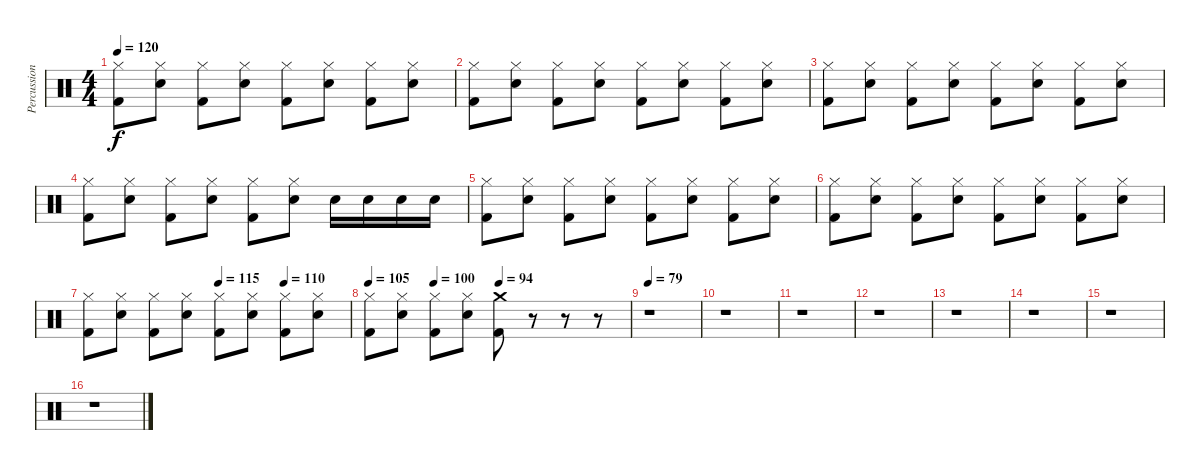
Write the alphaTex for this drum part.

\track ("Percussion" "Percussion") {instrument percussion}
\staff {score}
\articulation defaults
\ts (4 4)
\tempo 120
\clef neutral
\ks c
("Hi-Hat (closed)" "Kick (hit) 2").8{dy f} ("Hi-Hat (closed)" "Electric Snare (hit)").8 ("Hi-Hat (closed)" "Kick (hit) 2").8 ("Hi-Hat (closed)" "Electric Snare (hit)").8 ("Hi-Hat (closed)" "Kick (hit) 2").8 ("Hi-Hat (closed)" "Electric Snare (hit)").8 ("Hi-Hat (closed)" "Kick (hit) 2").8 ("Hi-Hat (closed)" "Electric Snare (hit)").8 |
("Hi-Hat (closed)" "Kick (hit) 2").8 ("Hi-Hat (closed)" "Electric Snare (hit)").8 ("Hi-Hat (closed)" "Kick (hit) 2").8 ("Hi-Hat (closed)" "Electric Snare (hit)").8 ("Hi-Hat (closed)" "Kick (hit) 2").8 ("Hi-Hat (closed)" "Electric Snare (hit)").8 ("Hi-Hat (closed)" "Kick (hit) 2").8 ("Hi-Hat (closed)" "Electric Snare (hit)").8 |
("Hi-Hat (closed)" "Kick (hit) 2").8 ("Hi-Hat (closed)" "Electric Snare (hit)").8 ("Hi-Hat (closed)" "Kick (hit) 2").8 ("Hi-Hat (closed)" "Electric Snare (hit)").8 ("Hi-Hat (closed)" "Kick (hit) 2").8 ("Hi-Hat (closed)" "Electric Snare (hit)").8 ("Hi-Hat (closed)" "Kick (hit) 2").8 ("Hi-Hat (closed)" "Electric Snare (hit)").8 |
("Hi-Hat (closed)" "Kick (hit) 2").8 ("Hi-Hat (closed)" "Electric Snare (hit)").8 ("Hi-Hat (closed)" "Kick (hit) 2").8 ("Hi-Hat (closed)" "Electric Snare (hit)").8 ("Hi-Hat (closed)" "Kick (hit) 2").8 ("Hi-Hat (closed)" "Electric Snare (hit)").8 "Electric Snare (hit)".16 "Electric Snare (hit)".16 "Electric Snare (hit)".16 "Electric Snare (hit)".16 |
("Hi-Hat (closed)" "Kick (hit) 2").8 ("Hi-Hat (closed)" "Electric Snare (hit)").8 ("Hi-Hat (closed)" "Kick (hit) 2").8 ("Hi-Hat (closed)" "Electric Snare (hit)").8 ("Hi-Hat (closed)" "Kick (hit) 2").8 ("Hi-Hat (closed)" "Electric Snare (hit)").8 ("Hi-Hat (closed)" "Kick (hit) 2").8 ("Hi-Hat (closed)" "Electric Snare (hit)").8 |
("Hi-Hat (closed)" "Kick (hit) 2").8 ("Hi-Hat (closed)" "Electric Snare (hit)").8 ("Hi-Hat (closed)" "Kick (hit) 2").8 ("Hi-Hat (closed)" "Electric Snare (hit)").8 ("Hi-Hat (closed)" "Kick (hit) 2").8 ("Hi-Hat (closed)" "Electric Snare (hit)").8 ("Hi-Hat (closed)" "Kick (hit) 2").8 ("Hi-Hat (closed)" "Electric Snare (hit)").8 |
\tempo (115 0.5)
\tempo (110 0.75)
("Hi-Hat (closed)" "Kick (hit) 2").8 ("Hi-Hat (closed)" "Electric Snare (hit)").8 ("Hi-Hat (closed)" "Kick (hit) 2").8 ("Hi-Hat (closed)" "Electric Snare (hit)").8 ("Hi-Hat (closed)" "Kick (hit) 2").8 ("Hi-Hat (closed)" "Electric Snare (hit)").8 ("Hi-Hat (closed)" "Kick (hit) 2").8 ("Hi-Hat (closed)" "Electric Snare (hit)").8 |
\tempo 105
\tempo (100 0.25)
\tempo (94 0.5)
("Hi-Hat (closed)" "Kick (hit) 2").8 ("Hi-Hat (closed)" "Electric Snare (hit)").8 ("Hi-Hat (closed)" "Kick (hit) 2").8 ("Hi-Hat (closed)" "Electric Snare (hit)").8 ("Crash medium (hit)" "Kick (hit) 2").8 r.8 r.8 r.8 |
\tempo 79
r.1 |
r.1 |
r.1 |
r.1 |
r.1 |
r.1 |
r.1 |
r.1
